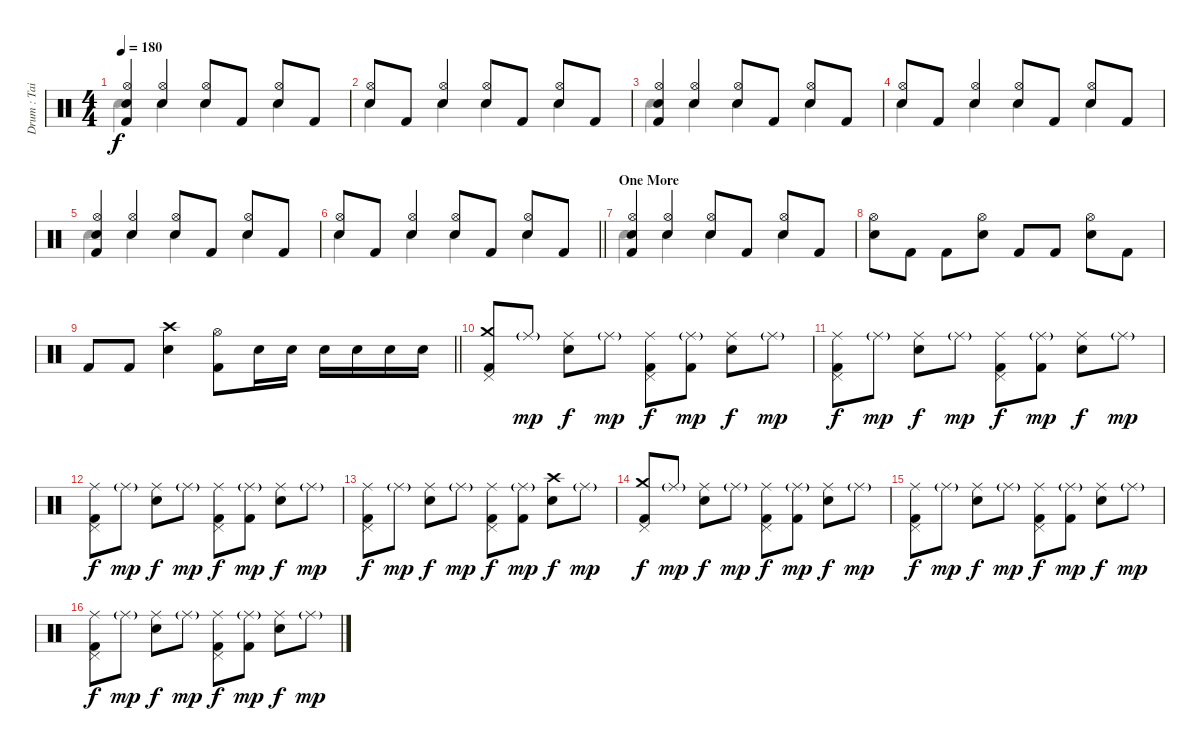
\track ("Drum : Tainaka Ritsu - Chan" "Drum : Tai") {instrument percussion}
\staff {score}
\articulation defaults
\voice
\ts (4 4)
\tempo 180
\clef neutral
\ks c
("Hi-Hat (open)" "Electric Snare (hit)" "Kick (hit) 2").4{dy f} ("Hi-Hat (open)" "Electric Snare (hit)").4 ("Hi-Hat (open)" "Electric Snare (hit)").8 "Kick (hit) 2".8 ("Hi-Hat (open)" "Electric Snare (hit)").8 "Kick (hit) 2".8 |
("Hi-Hat (open)" "Electric Snare (hit)").8 "Kick (hit) 2".8 ("Hi-Hat (open)" "Electric Snare (hit)").4 ("Hi-Hat (open)" "Electric Snare (hit)").8 "Kick (hit) 2".8 ("Hi-Hat (open)" "Electric Snare (hit)").8 "Kick (hit) 2".8 |
("Hi-Hat (open)" "Electric Snare (hit)" "Kick (hit) 2").4 ("Hi-Hat (open)" "Electric Snare (hit)").4 ("Hi-Hat (open)" "Electric Snare (hit)").8 "Kick (hit) 2".8 ("Hi-Hat (open)" "Electric Snare (hit)").8 "Kick (hit) 2".8 |
("Hi-Hat (open)" "Electric Snare (hit)").8 "Kick (hit) 2".8 ("Hi-Hat (open)" "Electric Snare (hit)").4 ("Hi-Hat (open)" "Electric Snare (hit)").8 "Kick (hit) 2".8 ("Hi-Hat (open)" "Electric Snare (hit)").8 "Kick (hit) 2".8 |
("Hi-Hat (open)" "Electric Snare (hit)" "Kick (hit) 2").4 ("Hi-Hat (open)" "Electric Snare (hit)").4 ("Hi-Hat (open)" "Electric Snare (hit)").8 "Kick (hit) 2".8 ("Hi-Hat (open)" "Electric Snare (hit)").8 "Kick (hit) 2".8 |
\barLineRight lightlight
("Hi-Hat (open)" "Electric Snare (hit)").8 "Kick (hit) 2".8 ("Hi-Hat (open)" "Electric Snare (hit)").4 ("Hi-Hat (open)" "Electric Snare (hit)").8 "Kick (hit) 2".8 ("Hi-Hat (open)" "Electric Snare (hit)").8 "Kick (hit) 2".8 |
\section ("" "One More")
("Hi-Hat (open)" "Electric Snare (hit)" "Kick (hit) 2").4 ("Hi-Hat (open)" "Electric Snare (hit)").4 ("Hi-Hat (open)" "Electric Snare (hit)").8 "Kick (hit) 2".8 ("Hi-Hat (open)" "Electric Snare (hit)").8 "Kick (hit) 2".8 |
("Hi-Hat (open)" "Electric Snare (hit)").8 "Kick (hit) 2".8 "Kick (hit) 2".8 ("Hi-Hat (open)" "Electric Snare (hit)").8 "Kick (hit) 2".8 "Kick (hit) 2".8 ("Hi-Hat (open)" "Electric Snare (hit)").8 "Kick (hit) 2".8 |
\barLineRight lightlight "Kick (hit) 2".8 "Kick (hit) 2".8
("Crash high (hit)" "Electric Snare (hit)").4 ("Hi-Hat (open)" "Kick (hit) 2").8 "Electric Snare (hit)".16 "Electric Snare (hit)".16 "Electric Snare (hit)".16 "Electric Snare (hit)".16 "Electric Snare (hit)".16 "Electric Snare (hit)".16 |
("Crash medium (hit)" "Pedal Hi-Hat (hit)" "Kick (hit) 2").8 "Ride (middle)"{g}.8{dy mp} ("Ride (middle)" "Electric Snare (hit)").8{dy f} "Ride (middle)"{g}.8{dy mp} ("Ride (middle)" "Pedal Hi-Hat (hit)" "Kick (hit) 2").8{dy f} ("Ride (middle)"{g} "Kick (hit) 2").8{dy mp} ("Ride (middle)" "Electric Snare (hit)").8{dy f} "Ride (middle)"{g}.8{dy mp} |
("Ride (middle)" "Pedal Hi-Hat (hit)" "Kick (hit) 2").8{dy f} "Ride (middle)"{g}.8{dy mp} ("Ride (middle)" "Electric Snare (hit)").8{dy f} "Ride (middle)"{g}.8{dy mp} ("Ride (middle)" "Pedal Hi-Hat (hit)" "Kick (hit) 2").8{dy f} ("Ride (middle)"{g} "Kick (hit) 2").8{dy mp} ("Ride (middle)" "Electric Snare (hit)").8{dy f} "Ride (middle)"{g}.8{dy mp} |
("Ride (middle)" "Pedal Hi-Hat (hit)" "Kick (hit) 2").8{dy f} "Ride (middle)"{g}.8{dy mp} ("Ride (middle)" "Electric Snare (hit)").8{dy f} "Ride (middle)"{g}.8{dy mp} ("Ride (middle)" "Pedal Hi-Hat (hit)" "Kick (hit) 2").8{dy f} ("Ride (middle)"{g} "Kick (hit) 2").8{dy mp} ("Ride (middle)" "Electric Snare (hit)").8{dy f} "Ride (middle)"{g}.8{dy mp} |
("Ride (middle)" "Pedal Hi-Hat (hit)" "Kick (hit) 2").8{dy f} "Ride (middle)"{g}.8{dy mp} ("Ride (middle)" "Electric Snare (hit)").8{dy f} "Ride (middle)"{g}.8{dy mp} ("Ride (middle)" "Pedal Hi-Hat (hit)" "Kick (hit) 2").8{dy f} ("Ride (middle)"{g} "Kick (hit) 2").8{dy mp} ("Crash high (hit)" "Electric Snare (hit)").8{dy f} "Ride (middle)"{g}.8{dy mp} |
("Crash medium (hit)" "Pedal Hi-Hat (hit)" "Kick (hit) 2").8{dy f} "Ride (middle)"{g}.8{dy mp} ("Ride (middle)" "Electric Snare (hit)").8{dy f} "Ride (middle)"{g}.8{dy mp} ("Ride (middle)" "Pedal Hi-Hat (hit)" "Kick (hit) 2").8{dy f} ("Ride (middle)"{g} "Kick (hit) 2").8{dy mp} ("Ride (middle)" "Electric Snare (hit)").8{dy f} "Ride (middle)"{g}.8{dy mp} |
("Ride (middle)" "Pedal Hi-Hat (hit)" "Kick (hit) 2").8{dy f} "Ride (middle)"{g}.8{dy mp} ("Ride (middle)" "Electric Snare (hit)").8{dy f} "Ride (middle)"{g}.8{dy mp} ("Ride (middle)" "Pedal Hi-Hat (hit)" "Kick (hit) 2").8{dy f} ("Ride (middle)"{g} "Kick (hit) 2").8{dy mp} ("Ride (middle)" "Electric Snare (hit)").8{dy f} "Ride (middle)"{g}.8{dy mp} |
("Ride (middle)" "Pedal Hi-Hat (hit)" "Kick (hit) 2").8{dy f} "Ride (middle)"{g}.8{dy mp} ("Ride (middle)" "Electric Snare (hit)").8{dy f} "Ride (middle)"{g}.8{dy mp} ("Ride (middle)" "Pedal Hi-Hat (hit)" "Kick (hit) 2").8{dy f} ("Ride (middle)"{g} "Kick (hit) 2").8{dy mp} ("Ride (middle)" "Electric Snare (hit)").8{dy f} "Ride (middle)"{g}.8{dy mp}
\voice
\clef neutral
\ottava regular
\simile none
\ks c "Hand Clap (hit)".4{dy f} "Hand Clap (hit)".4 "Hand Clap (hit)".4 "Hand Clap (hit)".4
|
"Hand Clap (hit)".4 "Hand Clap (hit)".4 "Hand Clap (hit)".4 "Hand Clap (hit)".4 |
"Hand Clap (hit)".4 "Hand Clap (hit)".4 "Hand Clap (hit)".4 "Hand Clap (hit)".4 |
"Hand Clap (hit)".4 "Hand Clap (hit)".4 "Hand Clap (hit)".4 "Hand Clap (hit)".4 |
"Hand Clap (hit)".4 "Hand Clap (hit)".4 "Hand Clap (hit)".4 "Hand Clap (hit)".4 |
\barLineRight lightlight "Hand Clap (hit)".4 "Hand Clap (hit)".4 "Hand Clap (hit)".4 "Hand Clap (hit)".4
|
"Hand Clap (hit)".4 "Hand Clap (hit)".4 "Hand Clap (hit)".4 "Hand Clap (hit)".4 |
|
\barLineRight lightlight
|
|
|
|
|
|
|
